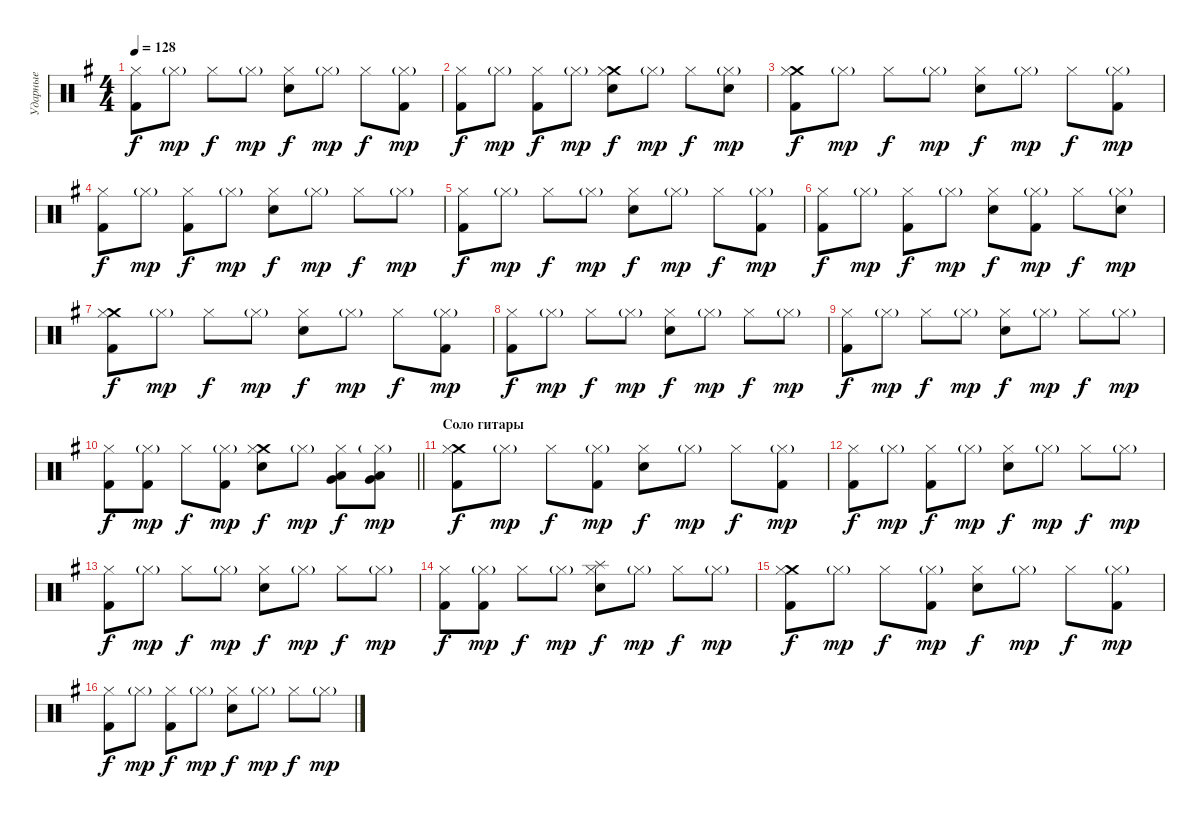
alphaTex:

\track ("Ударные" "Ударные") {instrument percussion}
\staff {score}
\articulation defaults
\ts (4 4)
\tempo 128
\clef neutral
\ks eminor
("Hi-Hat (closed)" "Kick (hit) 2").8{dy f} "Hi-Hat (closed)"{g}.8{dy mp} "Hi-Hat (closed)".8{dy f} "Hi-Hat (closed)"{g}.8{dy mp} ("Hi-Hat (closed)" "Electric Snare (hit)").8{dy f} "Hi-Hat (closed)"{g}.8{dy mp} "Hi-Hat (closed)".8{dy f} ("Hi-Hat (closed)"{g} "Kick (hit) 2").8{dy mp} |
("Hi-Hat (closed)" "Kick (hit) 2").8{dy f} "Hi-Hat (closed)"{g}.8{dy mp} ("Hi-Hat (closed)" "Kick (hit) 2").8{dy f} "Hi-Hat (closed)"{g}.8{dy mp} ("Crash medium (hit)" "Hi-Hat (closed)" "Electric Snare (hit)").8{dy f} "Hi-Hat (closed)"{g}.8{dy mp} "Hi-Hat (closed)".8{dy f} ("Hi-Hat (closed)"{g} "Electric Snare (hit)").8{dy mp} |
("Crash medium (hit)" "Hi-Hat (closed)" "Kick (hit) 2").8{dy f} "Hi-Hat (closed)"{g}.8{dy mp} "Hi-Hat (closed)".8{dy f} "Hi-Hat (closed)"{g}.8{dy mp} ("Hi-Hat (closed)" "Electric Snare (hit)").8{dy f} "Hi-Hat (closed)"{g}.8{dy mp} "Hi-Hat (closed)".8{dy f} ("Hi-Hat (closed)"{g} "Kick (hit) 2").8{dy mp} |
("Hi-Hat (closed)" "Kick (hit) 2").8{dy f} "Hi-Hat (closed)"{g}.8{dy mp} ("Hi-Hat (closed)" "Kick (hit) 2").8{dy f} "Hi-Hat (closed)"{g}.8{dy mp} ("Hi-Hat (closed)" "Electric Snare (hit)").8{dy f} "Hi-Hat (closed)"{g}.8{dy mp} "Hi-Hat (closed)".8{dy f} "Hi-Hat (closed)"{g}.8{dy mp} |
("Hi-Hat (closed)" "Kick (hit) 2").8{dy f} "Hi-Hat (closed)"{g}.8{dy mp} "Hi-Hat (closed)".8{dy f} "Hi-Hat (closed)"{g}.8{dy mp} ("Hi-Hat (closed)" "Electric Snare (hit)").8{dy f} "Hi-Hat (closed)"{g}.8{dy mp} "Hi-Hat (closed)".8{dy f} ("Hi-Hat (closed)"{g} "Kick (hit) 2").8{dy mp} |
("Hi-Hat (closed)" "Kick (hit) 2").8{dy f} "Hi-Hat (closed)"{g}.8{dy mp} ("Hi-Hat (closed)" "Kick (hit) 2").8{dy f} "Hi-Hat (closed)"{g}.8{dy mp} ("Hi-Hat (closed)" "Electric Snare (hit)").8{dy f} ("Hi-Hat (closed)"{g} "Kick (hit) 2").8{dy mp} "Hi-Hat (closed)".8{dy f} ("Hi-Hat (closed)"{g} "Electric Snare (hit)").8{dy mp} |
("Crash medium (hit)" "Hi-Hat (closed)" "Kick (hit) 2").8{dy f} "Hi-Hat (closed)"{g}.8{dy mp} "Hi-Hat (closed)".8{dy f} "Hi-Hat (closed)"{g}.8{dy mp} ("Hi-Hat (closed)" "Electric Snare (hit)").8{dy f} "Hi-Hat (closed)"{g}.8{dy mp} "Hi-Hat (closed)".8{dy f} ("Hi-Hat (closed)"{g} "Kick (hit) 2").8{dy mp} |
("Hi-Hat (closed)" "Kick (hit) 2").8{dy f} "Hi-Hat (closed)"{g}.8{dy mp} "Hi-Hat (closed)".8{dy f} "Hi-Hat (closed)"{g}.8{dy mp} ("Hi-Hat (closed)" "Electric Snare (hit)").8{dy f} "Hi-Hat (closed)"{g}.8{dy mp} "Hi-Hat (closed)".8{dy f} "Hi-Hat (closed)"{g}.8{dy mp} |
("Hi-Hat (closed)" "Kick (hit) 2").8{dy f} "Hi-Hat (closed)"{g}.8{dy mp} "Hi-Hat (closed)".8{dy f} "Hi-Hat (closed)"{g}.8{dy mp} ("Hi-Hat (closed)" "Electric Snare (hit)").8{dy f} "Hi-Hat (closed)"{g}.8{dy mp} "Hi-Hat (closed)".8{dy f} "Hi-Hat (closed)"{g}.8{dy mp} |
\barLineRight lightlight
("Hi-Hat (closed)" "Kick (hit) 2").8{dy f} ("Hi-Hat (closed)"{g} "Kick (hit) 2").8{dy mp} "Hi-Hat (closed)".8{dy f} ("Hi-Hat (closed)"{g} "Kick (hit) 2").8{dy mp} ("Crash medium (hit)" "Hi-Hat (closed)" "Electric Snare (hit)").8{dy f} "Hi-Hat (closed)"{g}.8{dy mp} ("Hi-Hat (closed)" "Low Tom (hit)" "Very Low Tom (hit)").8{dy f} ("Hi-Hat (closed)"{g} "Low Tom (hit)" "Very Low Tom (hit)").8{dy mp} |
\section ("" "Соло гитары")
("Crash medium (hit)" "Hi-Hat (closed)" "Kick (hit) 2").8{dy f} "Hi-Hat (closed)"{g}.8{dy mp} "Hi-Hat (closed)".8{dy f} ("Hi-Hat (closed)"{g} "Kick (hit) 2").8{dy mp} ("Hi-Hat (closed)" "Electric Snare (hit)").8{dy f} "Hi-Hat (closed)"{g}.8{dy mp} "Hi-Hat (closed)".8{dy f} ("Hi-Hat (closed)"{g} "Kick (hit) 2").8{dy mp} |
("Hi-Hat (closed)" "Kick (hit) 2").8{dy f} "Hi-Hat (closed)"{g}.8{dy mp} ("Hi-Hat (closed)" "Kick (hit) 2").8{dy f} "Hi-Hat (closed)"{g}.8{dy mp} ("Hi-Hat (closed)" "Electric Snare (hit)").8{dy f} "Hi-Hat (closed)"{g}.8{dy mp} "Hi-Hat (closed)".8{dy f} "Hi-Hat (closed)"{g}.8{dy mp} |
("Hi-Hat (closed)" "Kick (hit) 2").8{dy f} "Hi-Hat (closed)"{g}.8{dy mp} "Hi-Hat (closed)".8{dy f} "Hi-Hat (closed)"{g}.8{dy mp} ("Hi-Hat (closed)" "Electric Snare (hit)").8{dy f} "Hi-Hat (closed)"{g}.8{dy mp} "Hi-Hat (closed)".8{dy f} "Hi-Hat (closed)"{g}.8{dy mp} |
("Hi-Hat (closed)" "Kick (hit) 2").8{dy f} ("Hi-Hat (closed)"{g} "Kick (hit) 2").8{dy mp} "Hi-Hat (closed)".8{dy f} "Hi-Hat (closed)"{g}.8{dy mp} ("Splash (hit)" "Hi-Hat (closed)" "Electric Snare (hit)").8{dy f} "Hi-Hat (closed)"{g}.8{dy mp} "Hi-Hat (closed)".8{dy f} "Hi-Hat (closed)"{g}.8{dy mp} |
("Crash medium (hit)" "Hi-Hat (closed)" "Kick (hit) 2").8{dy f} "Hi-Hat (closed)"{g}.8{dy mp} "Hi-Hat (closed)".8{dy f} ("Hi-Hat (closed)"{g} "Kick (hit) 2").8{dy mp} ("Hi-Hat (closed)" "Electric Snare (hit)").8{dy f} "Hi-Hat (closed)"{g}.8{dy mp} "Hi-Hat (closed)".8{dy f} ("Hi-Hat (closed)"{g} "Kick (hit) 2").8{dy mp} |
("Hi-Hat (closed)" "Kick (hit) 2").8{dy f} "Hi-Hat (closed)"{g}.8{dy mp} ("Hi-Hat (closed)" "Kick (hit) 2").8{dy f} "Hi-Hat (closed)"{g}.8{dy mp} ("Hi-Hat (closed)" "Electric Snare (hit)").8{dy f} "Hi-Hat (closed)"{g}.8{dy mp} "Hi-Hat (closed)".8{dy f} "Hi-Hat (closed)"{g}.8{dy mp}
